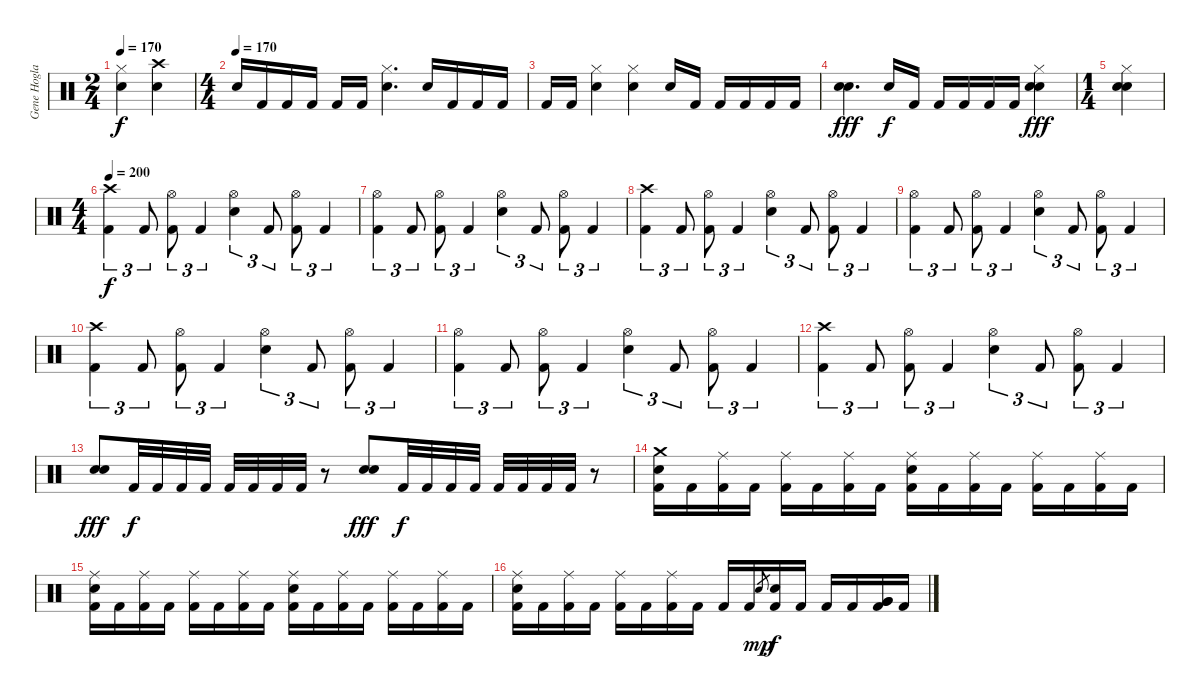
\track ("Gene Hoglan" "Gene Hogla") {instrument percussion}
\staff {score}
\articulation defaults
\ts (2 4)
\tempo 170
\clef neutral
\ks c
("Hi-Hat (closed)" "Snare (hit) 2").4{dy f} ("Crash high (hit)" "Snare (hit) 2").4 |
\ts (4 4)
\tempo (170)
"Snare (hit) 2".16 "Kick (hit) 2".16 "Kick (hit) 2".16 "Kick (hit) 2".16 "Kick (hit) 2".16 "Kick (hit) 2".16 ("Hi-Hat (closed)" "Snare (hit) 2").4{d} "Snare (hit) 2".16 "Kick (hit) 2".16 "Kick (hit) 2".16 "Kick (hit) 2".16 |
"Kick (hit) 2".16 "Kick (hit) 2".16 ("Hi-Hat (closed)" "Snare (hit) 2").4 ("Hi-Hat (closed)" "Snare (hit) 2").4 "Snare (hit) 2".16 "Kick (hit) 2".16 "Kick (hit) 2".16 "Kick (hit) 2".16 "Kick (hit) 2".16 "Kick (hit) 2".16 |
("Snare (hit) 2" "Snare (hit) 2").4{d dy fff} "Snare (hit) 2".16{dy f} "Kick (hit) 2".16 "Kick (hit) 2".16 "Kick (hit) 2".16 "Kick (hit) 2".16 "Kick (hit) 2".16 ("Hi-Hat (closed)" "Snare (hit) 2" "Snare (hit) 2").4{dy fff} |
\ts (1 4)
("Hi-Hat (closed)" "Snare (hit) 2" "Snare (hit) 2").4 |
\ts (4 4)
\tempo 200
("Crash high (hit)" "Kick (hit) 2").4{tu (3 2) dy f} "Kick (hit) 2".8{tu (3 2)} ("Hi-Hat (open)" "Kick (hit) 2").8{tu (3 2)} "Kick (hit) 2".4{tu (3 2)} ("Hi-Hat (open)" "Snare (hit) 2").4{tu (3 2)} "Kick (hit) 2".8{tu (3 2)} ("Hi-Hat (open)" "Kick (hit) 2").8{tu (3 2)} "Kick (hit) 2".4{tu (3 2)} |
("Hi-Hat (open)" "Kick (hit) 2").4{tu (3 2)} "Kick (hit) 2".8{tu (3 2)} ("Hi-Hat (open)" "Kick (hit) 2").8{tu (3 2)} "Kick (hit) 2".4{tu (3 2)} ("Hi-Hat (open)" "Snare (hit) 2").4{tu (3 2)} "Kick (hit) 2".8{tu (3 2)} ("Hi-Hat (open)" "Kick (hit) 2").8{tu (3 2)} "Kick (hit) 2".4{tu (3 2)} |
("Crash high (hit)" "Kick (hit) 2").4{tu (3 2)} "Kick (hit) 2".8{tu (3 2)} ("Hi-Hat (open)" "Kick (hit) 2").8{tu (3 2)} "Kick (hit) 2".4{tu (3 2)} ("Hi-Hat (open)" "Snare (hit) 2").4{tu (3 2)} "Kick (hit) 2".8{tu (3 2)} ("Hi-Hat (open)" "Kick (hit) 2").8{tu (3 2)} "Kick (hit) 2".4{tu (3 2)} |
("Hi-Hat (open)" "Kick (hit) 2").4{tu (3 2)} "Kick (hit) 2".8{tu (3 2)} ("Hi-Hat (open)" "Kick (hit) 2").8{tu (3 2)} "Kick (hit) 2".4{tu (3 2)} ("Hi-Hat (open)" "Snare (hit) 2").4{tu (3 2)} "Kick (hit) 2".8{tu (3 2)} ("Hi-Hat (open)" "Kick (hit) 2").8{tu (3 2)} "Kick (hit) 2".4{tu (3 2)} |
("Crash high (hit)" "Kick (hit) 2").4{tu (3 2)} "Kick (hit) 2".8{tu (3 2)} ("Hi-Hat (open)" "Kick (hit) 2").8{tu (3 2)} "Kick (hit) 2".4{tu (3 2)} ("Hi-Hat (open)" "Snare (hit) 2").4{tu (3 2)} "Kick (hit) 2".8{tu (3 2)} ("Hi-Hat (open)" "Kick (hit) 2").8{tu (3 2)} "Kick (hit) 2".4{tu (3 2)} |
("Hi-Hat (open)" "Kick (hit) 2").4{tu (3 2)} "Kick (hit) 2".8{tu (3 2)} ("Hi-Hat (open)" "Kick (hit) 2").8{tu (3 2)} "Kick (hit) 2".4{tu (3 2)} ("Hi-Hat (open)" "Snare (hit) 2").4{tu (3 2)} "Kick (hit) 2".8{tu (3 2)} ("Hi-Hat (open)" "Kick (hit) 2").8{tu (3 2)} "Kick (hit) 2".4{tu (3 2)} |
("Crash high (hit)" "Kick (hit) 2").4{tu (3 2)} "Kick (hit) 2".8{tu (3 2)} ("Hi-Hat (open)" "Kick (hit) 2").8{tu (3 2)} "Kick (hit) 2".4{tu (3 2)} ("Hi-Hat (open)" "Snare (hit) 2").4{tu (3 2)} "Kick (hit) 2".8{tu (3 2)} ("Hi-Hat (open)" "Kick (hit) 2").8{tu (3 2)} "Kick (hit) 2".4{tu (3 2)} |
("Snare (hit) 2" "Snare (hit) 2").8{dy fff} "Kick (hit) 2".32{dy f} "Kick (hit) 2".32 "Kick (hit) 2".32 "Kick (hit) 2".32 "Kick (hit) 2".32 "Kick (hit) 2".32 "Kick (hit) 2".32 "Kick (hit) 2".32 r.8 ("Snare (hit) 2" "Snare (hit) 2").8{dy fff} "Kick (hit) 2".32{dy f} "Kick (hit) 2".32 "Kick (hit) 2".32 "Kick (hit) 2".32 "Kick (hit) 2".32 "Kick (hit) 2".32 "Kick (hit) 2".32 "Kick (hit) 2".32 r.8 |
("Crash medium (hit)" "Snare (hit) 2" "Kick (hit) 2").16 "Kick (hit) 2".16 ("Ride (middle)" "Kick (hit) 2").16 "Kick (hit) 2".16 ("Ride (middle)" "Kick (hit) 2").16 "Kick (hit) 2".16 ("Ride (middle)" "Kick (hit) 2").16 "Kick (hit) 2".16 ("Ride (middle)" "Snare (hit) 2" "Kick (hit) 2").16 "Kick (hit) 2".16 ("Ride (middle)" "Kick (hit) 2").16 "Kick (hit) 2".16 ("Ride (middle)" "Kick (hit) 2").16 "Kick (hit) 2".16 ("Ride (middle)" "Kick (hit) 2").16 "Kick (hit) 2".16 |
("Ride (middle)" "Snare (hit) 2" "Kick (hit) 2").16 "Kick (hit) 2".16 ("Ride (middle)" "Kick (hit) 2").16 "Kick (hit) 2".16 ("Ride (middle)" "Kick (hit) 2").16 "Kick (hit) 2".16 ("Ride (middle)" "Kick (hit) 2").16 "Kick (hit) 2".16 ("Ride (middle)" "Snare (hit) 2" "Kick (hit) 2").16 "Kick (hit) 2".16 ("Ride (middle)" "Kick (hit) 2").16 "Kick (hit) 2".16 ("Ride (middle)" "Kick (hit) 2").16 "Kick (hit) 2".16 ("Ride (middle)" "Kick (hit) 2").16 "Kick (hit) 2".16 |
("Ride (middle)" "Snare (hit) 2" "Kick (hit) 2").16 "Kick (hit) 2".16 ("Ride (middle)" "Kick (hit) 2").16 "Kick (hit) 2".16 ("Ride (middle)" "Kick (hit) 2").16 "Kick (hit) 2".16 ("Ride (middle)" "Kick (hit) 2").16 "Kick (hit) 2".16 "Kick (hit) 2".16 "Kick (hit) 2".16 "Snare (hit) 2".8{gr dy mp} ("Snare (hit) 2" "Kick (hit) 2").16{dy f} "Kick (hit) 2".16 "Kick (hit) 2".16 "Kick (hit) 2".16 ("Very Low Tom (hit)" "Very Low Tom (hit)" "Kick (hit) 2").16 "Kick (hit) 2".16
